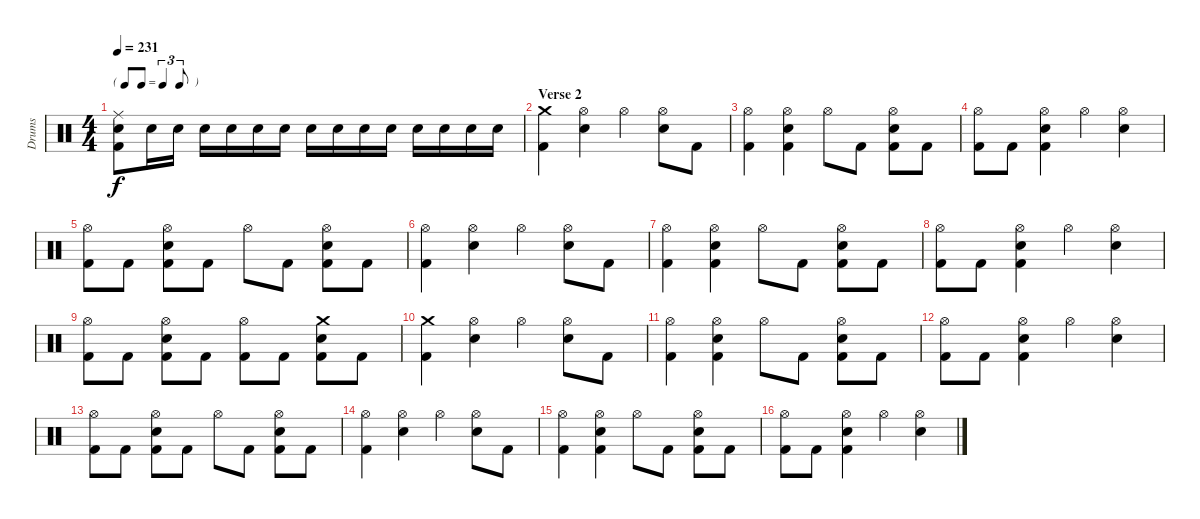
\track ("Drums" "Drums") {instrument percussion}
\staff {score}
\articulation defaults
\ts (4 4)
\tf triplet8th
\tempo 231
\clef neutral
\ks c
("Ride (middle)"{t} "Electric Snare (hit)"{t} "Kick (hit) 2"{t}).8{dy f} "Electric Snare (hit)".16{volume 0} "Electric Snare (hit)".16{volume 16} "Electric Snare (hit)".16 "Electric Snare (hit)".16 "Electric Snare (hit)".16 "Electric Snare (hit)".16 "Electric Snare (hit)".16 "Electric Snare (hit)".16 "Electric Snare (hit)".16 "Electric Snare (hit)".16 "Electric Snare (hit)".16 "Electric Snare (hit)".16 "Electric Snare (hit)".16 "Electric Snare (hit)".16 |
\section ("" "Verse 2")
("Crash medium (hit)" "Kick (hit) 2").4 ("Hi-Hat (open)" "Electric Snare (hit)").4 "Hi-Hat (open)".4 ("Hi-Hat (open)" "Electric Snare (hit)").8 "Kick (hit) 2".8 |
("Hi-Hat (open)" "Kick (hit) 2").4 ("Hi-Hat (open)" "Electric Snare (hit)" "Kick (hit) 2").4 "Hi-Hat (open)".8 "Kick (hit) 2".8 ("Hi-Hat (open)" "Electric Snare (hit)" "Kick (hit) 2").8 "Kick (hit) 2".8 |
("Hi-Hat (open)" "Kick (hit) 2").8 "Kick (hit) 2".8 ("Hi-Hat (open)" "Electric Snare (hit)" "Kick (hit) 2").4 "Hi-Hat (open)".4 ("Hi-Hat (open)" "Electric Snare (hit)").4 |
("Hi-Hat (open)" "Kick (hit) 2").8 "Kick (hit) 2".8 ("Hi-Hat (open)" "Electric Snare (hit)" "Kick (hit) 2").8 "Kick (hit) 2".8 "Hi-Hat (open)".8 "Kick (hit) 2".8 ("Hi-Hat (open)" "Electric Snare (hit)" "Kick (hit) 2").8 "Kick (hit) 2".8 |
("Hi-Hat (open)" "Kick (hit) 2").4 ("Hi-Hat (open)" "Electric Snare (hit)").4 "Hi-Hat (open)".4 ("Hi-Hat (open)" "Electric Snare (hit)").8 "Kick (hit) 2".8 |
("Hi-Hat (open)" "Kick (hit) 2").4 ("Hi-Hat (open)" "Electric Snare (hit)" "Kick (hit) 2").4 "Hi-Hat (open)".8 "Kick (hit) 2".8 ("Hi-Hat (open)" "Electric Snare (hit)" "Kick (hit) 2").8 "Kick (hit) 2".8 |
("Hi-Hat (open)" "Kick (hit) 2").8 "Kick (hit) 2".8 ("Hi-Hat (open)" "Electric Snare (hit)" "Kick (hit) 2").4 "Hi-Hat (open)".4 ("Hi-Hat (open)" "Electric Snare (hit)").4 |
("Hi-Hat (open)" "Kick (hit) 2").8 "Kick (hit) 2".8 ("Hi-Hat (open)" "Electric Snare (hit)" "Kick (hit) 2").8 "Kick (hit) 2".8 ("Hi-Hat (open)" "Kick (hit) 2").8 "Kick (hit) 2".8 ("Crash medium (hit)" "Electric Snare (hit)" "Kick (hit) 2").8 "Kick (hit) 2".8 |
("Crash medium (hit)" "Kick (hit) 2").4 ("Hi-Hat (open)" "Electric Snare (hit)").4 "Hi-Hat (open)".4 ("Hi-Hat (open)" "Electric Snare (hit)").8 "Kick (hit) 2".8 |
("Hi-Hat (open)" "Kick (hit) 2").4 ("Hi-Hat (open)" "Electric Snare (hit)" "Kick (hit) 2").4 "Hi-Hat (open)".8 "Kick (hit) 2".8 ("Hi-Hat (open)" "Electric Snare (hit)" "Kick (hit) 2").8 "Kick (hit) 2".8 |
("Hi-Hat (open)" "Kick (hit) 2").8 "Kick (hit) 2".8 ("Hi-Hat (open)" "Electric Snare (hit)" "Kick (hit) 2").4 "Hi-Hat (open)".4 ("Hi-Hat (open)" "Electric Snare (hit)").4 |
("Hi-Hat (open)" "Kick (hit) 2").8 "Kick (hit) 2".8 ("Hi-Hat (open)" "Electric Snare (hit)" "Kick (hit) 2").8 "Kick (hit) 2".8 "Hi-Hat (open)".8 "Kick (hit) 2".8 ("Hi-Hat (open)" "Electric Snare (hit)" "Kick (hit) 2").8 "Kick (hit) 2".8 |
("Hi-Hat (open)" "Kick (hit) 2").4 ("Hi-Hat (open)" "Electric Snare (hit)").4 "Hi-Hat (open)".4 ("Hi-Hat (open)" "Electric Snare (hit)").8 "Kick (hit) 2".8 |
("Hi-Hat (open)" "Kick (hit) 2").4 ("Hi-Hat (open)" "Electric Snare (hit)" "Kick (hit) 2").4 "Hi-Hat (open)".8 "Kick (hit) 2".8 ("Hi-Hat (open)" "Electric Snare (hit)" "Kick (hit) 2").8 "Kick (hit) 2".8 |
("Hi-Hat (open)" "Kick (hit) 2").8 "Kick (hit) 2".8 ("Hi-Hat (open)" "Electric Snare (hit)" "Kick (hit) 2").4 "Hi-Hat (open)".4 ("Hi-Hat (open)" "Electric Snare (hit)").4
